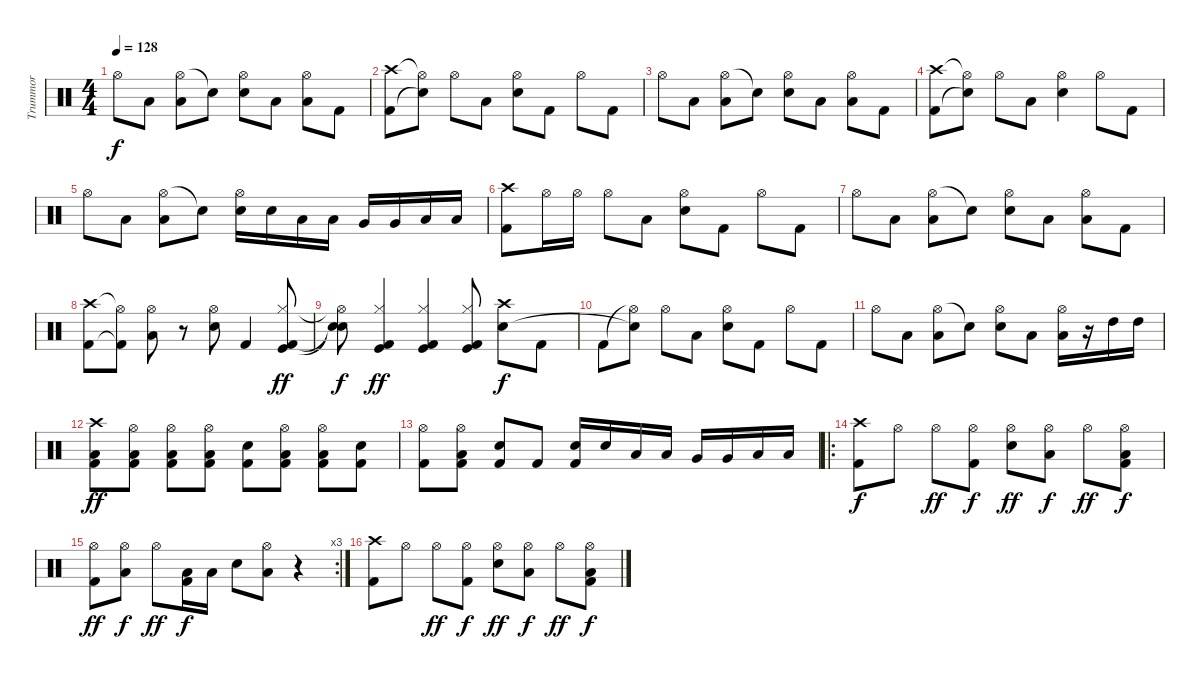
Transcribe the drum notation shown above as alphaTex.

\track ("Trummor" "Trummor") {instrument percussion}
\staff {score}
\articulation defaults
\ts (4 4)
\tempo 128
\clef neutral
\ks c "Hi-Hat (open)".8{dy f} "Low Floor Tom (hit)".8
("Hi-Hat (open)" "Low Floor Tom (hit)").8 "Snare (hit)"{t}.8 ("Hi-Hat (open)" "Snare (hit) 2").8 "Low Floor Tom (hit)".8 ("Hi-Hat (open)" "Low Floor Tom (hit)").8 "Kick (hit) 2".8 |
("Crash high (hit)" "Kick (hit) 2").8 ("Hi-Hat (open)"{t} "Snare (hit)"{t}).8 "Hi-Hat (open)".8 "Low Floor Tom (hit)".8 ("Hi-Hat (open)" "Snare (hit) 2").8 "Kick (hit) 2".8 "Hi-Hat (open)".8 "Kick (hit) 2".8 |
"Hi-Hat (open)".8 "Low Floor Tom (hit)".8 ("Hi-Hat (open)" "Low Floor Tom (hit)").8 "Snare (hit)"{t}.8 ("Hi-Hat (open)" "Snare (hit) 2").8 "Low Floor Tom (hit)".8 ("Hi-Hat (open)" "Low Floor Tom (hit)").8 "Kick (hit) 2".8 |
("Crash high (hit)" "Kick (hit) 2").8 ("Hi-Hat (open)"{t} "Snare (hit)"{t}).8 "Hi-Hat (open)".8 "Low Floor Tom (hit)".8 ("Hi-Hat (open)" "Snare (hit) 2").4 "Hi-Hat (open)".8 "Kick (hit) 2".8 |
"Hi-Hat (open)".8 "Low Floor Tom (hit)".8 ("Hi-Hat (open)" "Low Floor Tom (hit)").8 "Snare (hit)"{t}.8 ("Hi-Hat (open)" "Snare (hit) 2").16 "Snare (hit) 2".16 "Low Floor Tom (hit)".16 "Low Floor Tom (hit)".16 "Very Low Tom (hit)".16 "Very Low Tom (hit)".16 "Low Tom (hit)".16 "Low Tom (hit)".16 |
("Crash high (hit)" "Kick (hit) 2").8 "Hi-Hat (open)".16 "Hi-Hat (open)".16 "Hi-Hat (open)".8 "Low Floor Tom (hit)".8 ("Hi-Hat (open)" "Snare (hit) 2").8 "Kick (hit) 2".8 "Hi-Hat (open)".8 "Kick (hit) 2".8 |
"Hi-Hat (open)".8 "Low Floor Tom (hit)".8 ("Hi-Hat (open)" "Low Floor Tom (hit)").8 "Snare (hit)"{t}.8 ("Hi-Hat (open)" "Snare (hit) 2").8 "Low Floor Tom (hit)".8 ("Hi-Hat (open)" "Low Floor Tom (hit)").8 "Kick (hit) 2".8 |
("Crash high (hit)" "Kick (hit) 2").8 ("Hi-Hat (open)"{t} "Kick (hit) 2"{t}).8 ("Hi-Hat (open)" "Low Floor Tom (hit)").8 r.8 ("Hi-Hat (open)" "Snare (hit) 2").8 "Kick (hit) 2".4 ("Hi-Hat (closed)" "Kick (hit) 2" "Kick (hit)").8{dy ff} |
("Hi-Hat (open)"{t} "Snare (hit)"{t} "Snare (hit)"{t}).8{dy f} ("Hi-Hat (closed)" "Kick (hit) 2" "Kick (hit)").4{dy ff} ("Hi-Hat (closed)" "Kick (hit) 2" "Kick (hit)").4 ("Hi-Hat (closed)" "Kick (hit) 2" "Kick (hit)").8 ("Crash high (hit)" "Snare (hit) 2").8{dy f} "Kick (hit) 2".8 |
"Kick (hit) 2".8 ("Hi-Hat (open)"{t} "Snare (hit)"{t}).8 "Hi-Hat (open)".8 "Low Floor Tom (hit)".8 ("Hi-Hat (open)" "Snare (hit) 2").8 "Kick (hit) 2".8 "Hi-Hat (open)".8 "Kick (hit) 2".8 |
"Hi-Hat (open)".8 "Low Floor Tom (hit)".8 ("Hi-Hat (open)" "Low Floor Tom (hit)").8 "Snare (hit)"{t}.8 ("Hi-Hat (open)" "Snare (hit) 2").8 "Low Floor Tom (hit)".8 ("Hi-Hat (open)" "Low Floor Tom (hit)").16 r.16 "High Tom (hit)".16 "High Tom (hit)".16 |
("Crash high (hit)" "Low Floor Tom (hit)" "Kick (hit) 2").8{dy ff} ("Hi-Hat (open)" "Low Floor Tom (hit)" "Kick (hit) 2").8 ("Hi-Hat (open)" "Low Floor Tom (hit)" "Kick (hit) 2").8 ("Hi-Hat (open)" "Low Floor Tom (hit)" "Kick (hit) 2").8 ("Snare (hit) 2" "Kick (hit) 2").8 ("Hi-Hat (open)" "Low Floor Tom (hit)" "Kick (hit) 2").8 ("Hi-Hat (open)" "Low Floor Tom (hit)" "Kick (hit) 2").8 ("Snare (hit) 2" "Kick (hit) 2").8 |
("Hi-Hat (open)" "Kick (hit) 2").8 ("Hi-Hat (open)" "Low Floor Tom (hit)" "Kick (hit) 2").8 ("Snare (hit) 2" "Kick (hit) 2").8 "Kick (hit) 2".8 ("Snare (hit) 2" "Kick (hit) 2").16 "Snare (hit) 2".16 "Low Floor Tom (hit)".16 "Low Floor Tom (hit)".16 "Very Low Tom (hit)".16 "Very Low Tom (hit)".16 "Low Tom (hit)".16 "Low Tom (hit)".16 |
\ro
("Crash high (hit)" "Kick (hit) 2").8{dy f} "Hi-Hat (open)".8 "Hi-Hat (open)".8{dy ff} ("Hi-Hat (open)" "Kick (hit) 2").8{dy f} ("Hi-Hat (open)" "Snare (hit) 2").8{dy ff} ("Hi-Hat (open)" "Low Floor Tom (hit)").8{dy f} "Hi-Hat (open)".8{dy ff} ("Hi-Hat (open)" "Low Floor Tom (hit)" "Kick (hit) 2").8{dy f} |
\rc 3
("Hi-Hat (open)" "Kick (hit) 2").8{dy ff} ("Hi-Hat (open)" "Low Floor Tom (hit)").8{dy f} "Hi-Hat (open)".8{dy ff} ("Low Floor Tom (hit)" "Kick (hit) 2").16{dy f} "Low Floor Tom (hit)".16 "Snare (hit) 2".8 ("Hi-Hat (open)" "Low Floor Tom (hit)").8 r.4 |
("Crash high (hit)" "Kick (hit) 2").8 "Hi-Hat (open)".8 "Hi-Hat (open)".8{dy ff} ("Hi-Hat (open)" "Kick (hit) 2").8{dy f} ("Hi-Hat (open)" "Snare (hit) 2").8{dy ff} ("Hi-Hat (open)" "Low Floor Tom (hit)").8{dy f} "Hi-Hat (open)".8{dy ff} ("Hi-Hat (open)" "Low Floor Tom (hit)" "Kick (hit) 2").8{dy f}
